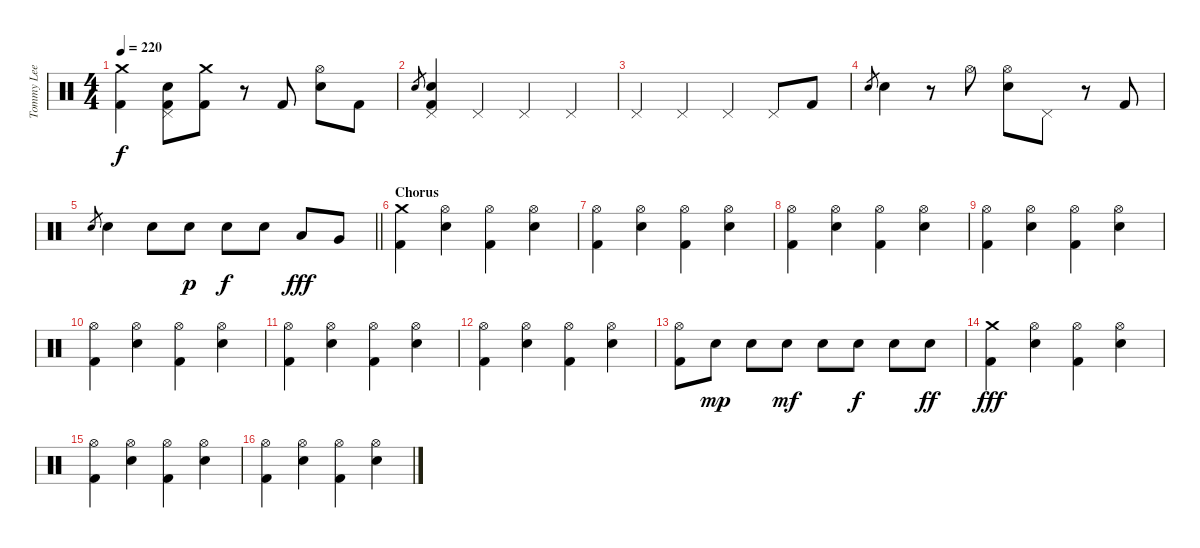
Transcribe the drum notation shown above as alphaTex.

\track ("Tommy Lee - Drums" "Tommy Lee ") {instrument percussion}
\staff {score}
\articulation defaults
\ts (4 4)
\tempo 220
\clef neutral
\ks c
("Crash medium (hit)" "Kick (hit) 2").4{dy f} ("Pedal Hi-Hat (hit)" "Electric Snare (hit)" "Kick (hit) 2").8 ("Crash medium (hit)" "Kick (hit) 2").8 r.8 "Kick (hit) 2".8 ("Hi-Hat (open)" "Electric Snare (hit)").8 "Kick (hit) 2".8 |
"Electric Snare (hit)".8{gr} ("Pedal Hi-Hat (hit)" "Electric Snare (hit)" "Kick (hit) 2").4 "Pedal Hi-Hat (hit)".4 "Pedal Hi-Hat (hit)".4 "Pedal Hi-Hat (hit)".4 |
"Pedal Hi-Hat (hit)".4 "Pedal Hi-Hat (hit)".4 "Pedal Hi-Hat (hit)".4 "Pedal Hi-Hat (hit)".8 "Kick (hit) 2".8 |
"Electric Snare (hit)".8{gr} "Electric Snare (hit)".4 r.8 "Hi-Hat (open)".8 ("Hi-Hat (open)" "Electric Snare (hit)").8 "Pedal Hi-Hat (hit)".8 r.8 "Kick (hit) 2".8 |
\barLineRight lightlight "Electric Snare (hit)".8{gr} "Electric Snare (hit)".4 "Electric Snare (hit)".8 "Electric Snare (hit)".8{dy p} "Electric Snare (hit)".8{dy f} "Electric Snare (hit)".8 "Low Tom (hit)".8{dy fff} "Very Low Tom (hit)".8
|
\section ("" "Chorus")
("Crash medium (hit)" "Kick (hit) 2").4 ("Hi-Hat (open)" "Electric Snare (hit)").4 ("Hi-Hat (open)" "Kick (hit) 2").4 ("Hi-Hat (open)" "Electric Snare (hit)").4 |
("Hi-Hat (open)" "Kick (hit) 2").4 ("Hi-Hat (open)" "Electric Snare (hit)").4 ("Hi-Hat (open)" "Kick (hit) 2").4 ("Hi-Hat (open)" "Electric Snare (hit)").4 |
("Hi-Hat (open)" "Kick (hit) 2").4 ("Hi-Hat (open)" "Electric Snare (hit)").4 ("Hi-Hat (open)" "Kick (hit) 2").4 ("Hi-Hat (open)" "Electric Snare (hit)").4 |
("Hi-Hat (open)" "Kick (hit) 2").4 ("Hi-Hat (open)" "Electric Snare (hit)").4 ("Hi-Hat (open)" "Kick (hit) 2").4 ("Hi-Hat (open)" "Electric Snare (hit)").4 |
("Hi-Hat (open)" "Kick (hit) 2").4 ("Hi-Hat (open)" "Electric Snare (hit)").4 ("Hi-Hat (open)" "Kick (hit) 2").4 ("Hi-Hat (open)" "Electric Snare (hit)").4 |
("Hi-Hat (open)" "Kick (hit) 2").4 ("Hi-Hat (open)" "Electric Snare (hit)").4 ("Hi-Hat (open)" "Kick (hit) 2").4 ("Hi-Hat (open)" "Electric Snare (hit)").4 |
("Hi-Hat (open)" "Kick (hit) 2").4 ("Hi-Hat (open)" "Electric Snare (hit)").4 ("Hi-Hat (open)" "Kick (hit) 2").4 ("Hi-Hat (open)" "Electric Snare (hit)").4 |
("Hi-Hat (open)" "Kick (hit) 2").8 "Electric Snare (hit)".8{dy mp} "Electric Snare (hit)".8 "Electric Snare (hit)".8{dy mf} "Electric Snare (hit)".8 "Electric Snare (hit)".8{dy f} "Electric Snare (hit)".8 "Electric Snare (hit)".8{dy ff} |
("Crash medium (hit)" "Kick (hit) 2").4{dy fff} ("Hi-Hat (open)" "Electric Snare (hit)").4 ("Hi-Hat (open)" "Kick (hit) 2").4 ("Hi-Hat (open)" "Electric Snare (hit)").4 |
("Hi-Hat (open)" "Kick (hit) 2").4 ("Hi-Hat (open)" "Electric Snare (hit)").4 ("Hi-Hat (open)" "Kick (hit) 2").4 ("Hi-Hat (open)" "Electric Snare (hit)").4 |
("Hi-Hat (open)" "Kick (hit) 2").4 ("Hi-Hat (open)" "Electric Snare (hit)").4 ("Hi-Hat (open)" "Kick (hit) 2").4 ("Hi-Hat (open)" "Electric Snare (hit)").4
